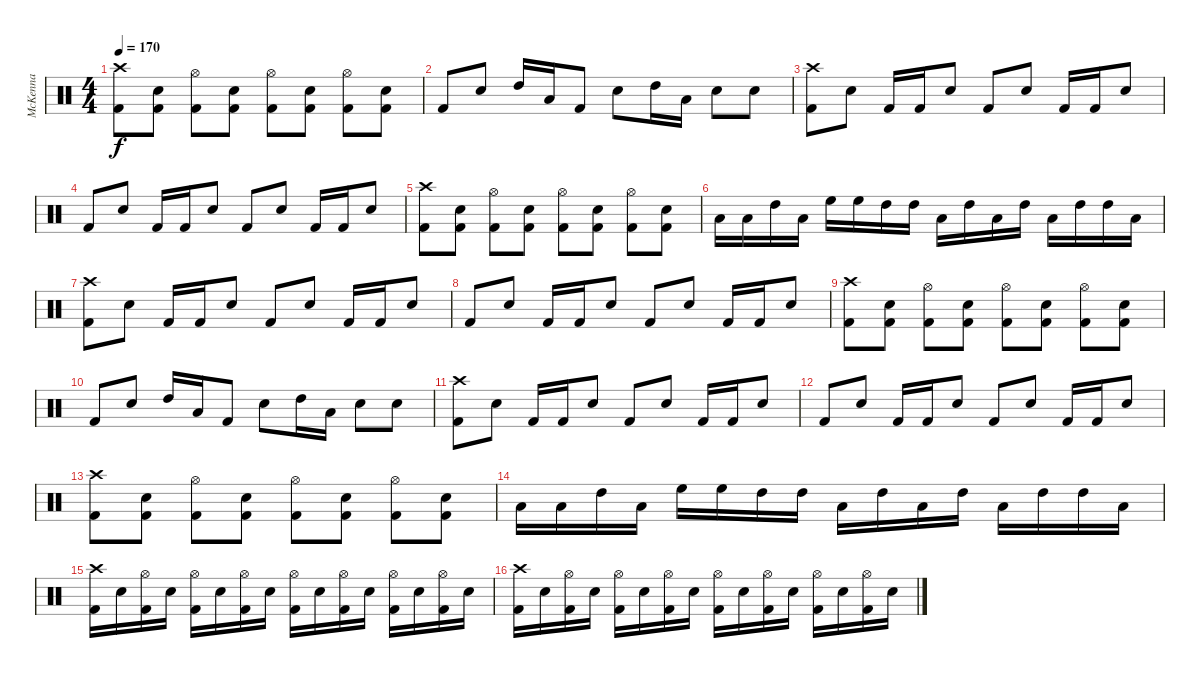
\track ("McKenna" "McKenna") {instrument percussion}
\staff {score}
\articulation defaults
\ts (4 4)
\tempo 170
\clef neutral
\ks c
("Crash high (hit)" "Kick (hit) 2").8{dy f} ("Snare (hit) 2" "Kick (hit) 2").8 ("Hi-Hat (open)" "Kick (hit) 2").8 ("Snare (hit) 2" "Kick (hit) 2").8 ("Hi-Hat (open)" "Kick (hit) 2").8 ("Snare (hit) 2" "Kick (hit) 2").8 ("Hi-Hat (open)" "Kick (hit) 2").8 ("Snare (hit) 2" "Kick (hit) 2").8 |
"Kick (hit) 2".8 "Snare (hit) 2".8 "High Tom (hit)".16 "Low Tom (hit)".16 "Kick (hit) 2".8 "Snare (hit) 2".8 "High Tom (hit)".16 "Low Tom (hit)".16 "Snare (hit) 2".8 "Snare (hit) 2".8 |
("Crash high (hit)" "Kick (hit) 2").8 "Snare (hit) 2".8 "Kick (hit) 2".16 "Kick (hit) 2".16 "Snare (hit) 2".8 "Kick (hit) 2".8 "Snare (hit) 2".8 "Kick (hit) 2".16 "Kick (hit) 2".16 "Snare (hit) 2".8 |
"Kick (hit) 2".8 "Snare (hit) 2".8 "Kick (hit) 2".16 "Kick (hit) 2".16 "Snare (hit) 2".8 "Kick (hit) 2".8 "Snare (hit) 2".8 "Kick (hit) 2".16 "Kick (hit) 2".16 "Snare (hit) 2".8 |
("Crash high (hit)" "Kick (hit) 2").8 ("Snare (hit) 2" "Kick (hit) 2").8 ("Hi-Hat (open)" "Kick (hit) 2").8 ("Snare (hit) 2" "Kick (hit) 2").8 ("Hi-Hat (open)" "Kick (hit) 2").8 ("Snare (hit) 2" "Kick (hit) 2").8 ("Hi-Hat (open)" "Kick (hit) 2").8 ("Snare (hit) 2" "Kick (hit) 2").8 |
"Low Tom (hit)".16 "Low Tom (hit)".16 "High Tom (hit)".16 "Low Tom (hit)".16 "High Floor Tom (hit)".16 "High Floor Tom (hit)".16 "High Tom (hit)".16 "High Tom (hit)".16 "Low Tom (hit)".16 "High Tom (hit)".16 "Low Tom (hit)".16 "High Tom (hit)".16 "Low Tom (hit)".16 "High Tom (hit)".16 "High Tom (hit)".16 "Low Tom (hit)".16 |
("Crash high (hit)" "Kick (hit) 2").8 "Snare (hit) 2".8 "Kick (hit) 2".16 "Kick (hit) 2".16 "Snare (hit) 2".8 "Kick (hit) 2".8 "Snare (hit) 2".8 "Kick (hit) 2".16 "Kick (hit) 2".16 "Snare (hit) 2".8 |
"Kick (hit) 2".8 "Snare (hit) 2".8 "Kick (hit) 2".16 "Kick (hit) 2".16 "Snare (hit) 2".8 "Kick (hit) 2".8 "Snare (hit) 2".8 "Kick (hit) 2".16 "Kick (hit) 2".16 "Snare (hit) 2".8 |
("Crash high (hit)" "Kick (hit) 2").8 ("Snare (hit) 2" "Kick (hit) 2").8 ("Hi-Hat (open)" "Kick (hit) 2").8 ("Snare (hit) 2" "Kick (hit) 2").8 ("Hi-Hat (open)" "Kick (hit) 2").8 ("Snare (hit) 2" "Kick (hit) 2").8 ("Hi-Hat (open)" "Kick (hit) 2").8 ("Snare (hit) 2" "Kick (hit) 2").8 |
"Kick (hit) 2".8 "Snare (hit) 2".8 "High Tom (hit)".16 "Low Tom (hit)".16 "Kick (hit) 2".8 "Snare (hit) 2".8 "High Tom (hit)".16 "Low Tom (hit)".16 "Snare (hit) 2".8 "Snare (hit) 2".8 |
("Crash high (hit)" "Kick (hit) 2").8 "Snare (hit) 2".8 "Kick (hit) 2".16 "Kick (hit) 2".16 "Snare (hit) 2".8 "Kick (hit) 2".8 "Snare (hit) 2".8 "Kick (hit) 2".16 "Kick (hit) 2".16 "Snare (hit) 2".8 |
"Kick (hit) 2".8 "Snare (hit) 2".8 "Kick (hit) 2".16 "Kick (hit) 2".16 "Snare (hit) 2".8 "Kick (hit) 2".8 "Snare (hit) 2".8 "Kick (hit) 2".16 "Kick (hit) 2".16 "Snare (hit) 2".8 |
("Crash high (hit)" "Kick (hit) 2").8 ("Snare (hit) 2" "Kick (hit) 2").8 ("Hi-Hat (open)" "Kick (hit) 2").8 ("Snare (hit) 2" "Kick (hit) 2").8 ("Hi-Hat (open)" "Kick (hit) 2").8 ("Snare (hit) 2" "Kick (hit) 2").8 ("Hi-Hat (open)" "Kick (hit) 2").8 ("Snare (hit) 2" "Kick (hit) 2").8 |
"Low Tom (hit)".16 "Low Tom (hit)".16 "High Tom (hit)".16 "Low Tom (hit)".16 "High Floor Tom (hit)".16 "High Floor Tom (hit)".16 "High Tom (hit)".16 "High Tom (hit)".16 "Low Tom (hit)".16 "High Tom (hit)".16 "Low Tom (hit)".16 "High Tom (hit)".16 "Low Tom (hit)".16 "High Tom (hit)".16 "High Tom (hit)".16 "Low Tom (hit)".16 |
("Crash high (hit)" "Kick (hit) 2").16 "Snare (hit) 2".16 ("Hi-Hat (open)" "Kick (hit) 2").16 "Snare (hit) 2".16 ("Hi-Hat (open)" "Kick (hit) 2").16 "Snare (hit) 2".16 ("Hi-Hat (open)" "Kick (hit) 2").16 "Snare (hit) 2".16 ("Hi-Hat (open)" "Kick (hit) 2").16 "Snare (hit) 2".16 ("Hi-Hat (open)" "Kick (hit) 2").16 "Snare (hit) 2".16 ("Hi-Hat (open)" "Kick (hit) 2").16 "Snare (hit) 2".16 ("Hi-Hat (open)" "Kick (hit) 2").16 "Snare (hit) 2".16 |
("Crash high (hit)" "Kick (hit) 2").16 "Snare (hit) 2".16 ("Hi-Hat (open)" "Kick (hit) 2").16 "Snare (hit) 2".16 ("Hi-Hat (open)" "Kick (hit) 2").16 "Snare (hit) 2".16 ("Hi-Hat (open)" "Kick (hit) 2").16 "Snare (hit) 2".16 ("Hi-Hat (open)" "Kick (hit) 2").16 "Snare (hit) 2".16 ("Hi-Hat (open)" "Kick (hit) 2").16 "Snare (hit) 2".16 ("Hi-Hat (open)" "Kick (hit) 2").16 "Snare (hit) 2".16 ("Hi-Hat (open)" "Kick (hit) 2").16 "Snare (hit) 2".16
